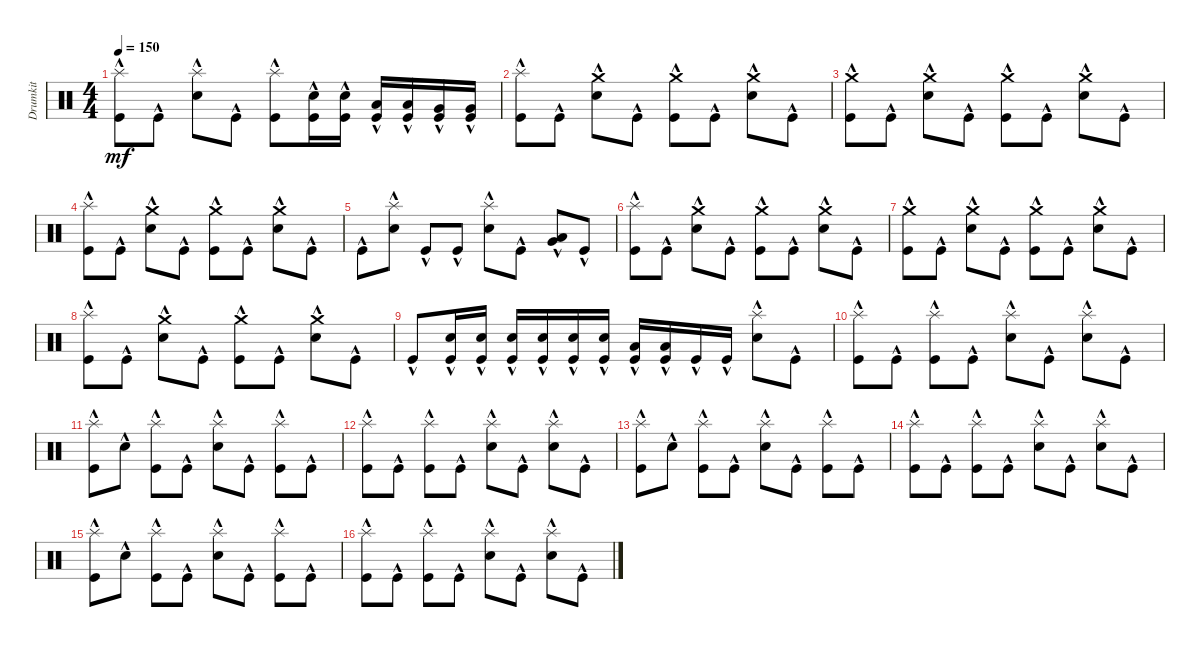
\track ("Drumkit" "Drumkit") {instrument percussion}
\staff {score}
\articulation defaults
\ts (4 4)
\tempo 150
\clef neutral
\ks c
("Kick (hit)"{hac} "Splash (hit)"{hac}).8{dy mf} "Kick (hit)"{hac}.8 ("Snare (hit) 2"{hac} "Splash (hit)"{hac}).8 "Kick (hit)"{hac}.8 ("Kick (hit)"{hac} "Splash (hit)"{hac}).8 ("Snare (hit) 2"{hac} "Kick (hit)"{hac}).16 ("Snare (hit) 2"{hac} "Kick (hit)"{hac}).16 ("Kick (hit)"{hac} "Low Tom (hit)"{hac}).16 ("Kick (hit)"{hac} "Low Tom (hit)"{hac}).16 ("Kick (hit)"{hac} "Very Low Tom (hit)"{hac}).16 ("Kick (hit)"{hac} "Very Low Tom (hit)"{hac}).16 |
("Kick (hit)"{hac} "Splash (hit)"{hac}).8 "Kick (hit)"{hac}.8 ("Snare (hit) 2"{hac} "Crash medium (hit)").8 "Kick (hit)"{hac}.8 ("Kick (hit)"{hac} "Crash medium (hit)").8 "Kick (hit)"{hac}.8 ("Snare (hit) 2"{hac} "Crash medium (hit)").8 "Kick (hit)"{hac}.8 |
("Kick (hit)"{hac} "Crash medium (hit)").8 "Kick (hit)"{hac}.8 ("Snare (hit) 2"{hac} "Crash medium (hit)").8 "Kick (hit)"{hac}.8 ("Kick (hit)"{hac} "Crash medium (hit)").8 "Kick (hit)"{hac}.8 ("Snare (hit) 2"{hac} "Crash medium (hit)").8 "Kick (hit)"{hac}.8 |
("Kick (hit)"{hac} "Splash (hit)"{hac}).8 "Kick (hit)"{hac}.8 ("Snare (hit) 2"{hac} "Crash medium (hit)").8 "Kick (hit)"{hac}.8 ("Kick (hit)"{hac} "Crash medium (hit)").8 "Kick (hit)"{hac}.8 ("Snare (hit) 2"{hac} "Crash medium (hit)").8 "Kick (hit)"{hac}.8 |
"Kick (hit)"{hac}.8 ("Snare (hit) 2"{hac} "Splash (hit)"{hac}).8 "Kick (hit)"{hac}.8 "Kick (hit)"{hac}.8 ("Snare (hit) 2"{hac} "Splash (hit)"{hac}).8 "Kick (hit)"{hac}.8 ("Low Tom (hit)"{hac} "Very Low Tom (hit)"{hac}).8 "Kick (hit)"{hac}.8 |
("Kick (hit)"{hac} "Splash (hit)"{hac}).8 "Kick (hit)"{hac}.8 ("Snare (hit) 2"{hac} "Crash medium (hit)").8 "Kick (hit)"{hac}.8 ("Kick (hit)"{hac} "Crash medium (hit)").8 "Kick (hit)"{hac}.8 ("Snare (hit) 2"{hac} "Crash medium (hit)").8 "Kick (hit)"{hac}.8 |
("Kick (hit)"{hac} "Crash medium (hit)").8 "Kick (hit)"{hac}.8 ("Snare (hit) 2"{hac} "Crash medium (hit)").8 "Kick (hit)"{hac}.8 ("Kick (hit)"{hac} "Crash medium (hit)").8 "Kick (hit)"{hac}.8 ("Snare (hit) 2"{hac} "Crash medium (hit)").8 "Kick (hit)"{hac}.8 |
("Kick (hit)"{hac} "Splash (hit)"{hac}).8 "Kick (hit)"{hac}.8 ("Snare (hit) 2"{hac} "Crash medium (hit)").8 "Kick (hit)"{hac}.8 ("Kick (hit)"{hac} "Crash medium (hit)").8 "Kick (hit)"{hac}.8 ("Snare (hit) 2"{hac} "Crash medium (hit)").8 "Kick (hit)"{hac}.8 |
"Kick (hit)"{hac}.8 ("Snare (hit) 2"{hac} "Kick (hit)").16 ("Snare (hit) 2"{hac} "Kick (hit)").16 ("Snare (hit) 2"{hac} "Kick (hit)").16 ("Snare (hit) 2"{hac} "Kick (hit)").16 ("Snare (hit) 2"{hac} "Kick (hit)").16 ("Snare (hit) 2"{hac} "Kick (hit)").16 ("Low Tom (hit)"{hac} "Kick (hit)").16 ("Low Tom (hit)"{hac} "Kick (hit)").16 "Kick (hit)"{hac}.16 "Kick (hit)"{hac}.16 ("Snare (hit) 2"{hac} "Splash (hit)"{hac}).8 "Kick (hit)"{hac}.8 |
("Kick (hit)"{hac} "Splash (hit)"{hac}).8 "Kick (hit)"{hac}.8 ("Kick (hit)"{hac} "Splash (hit)"{hac}).8 "Kick (hit)"{hac}.8 ("Snare (hit) 2"{hac} "Splash (hit)"{hac}).8 "Kick (hit)"{hac}.8 ("Snare (hit) 2"{hac} "Splash (hit)"{hac}).8 "Kick (hit)"{hac}.8 |
("Kick (hit)"{hac} "Splash (hit)"{hac}).8 "Snare (hit) 2"{hac}.8 ("Kick (hit)"{hac} "Splash (hit)"{hac}).8 "Kick (hit)"{hac}.8 ("Snare (hit) 2"{hac} "Splash (hit)"{hac}).8 "Kick (hit)"{hac}.8 ("Kick (hit)"{hac} "Splash (hit)"{hac}).8 "Kick (hit)"{hac}.8 |
("Kick (hit)"{hac} "Splash (hit)"{hac}).8 "Kick (hit)"{hac}.8 ("Kick (hit)"{hac} "Splash (hit)"{hac}).8 "Kick (hit)"{hac}.8 ("Snare (hit) 2"{hac} "Splash (hit)"{hac}).8 "Kick (hit)"{hac}.8 ("Snare (hit) 2"{hac} "Splash (hit)"{hac}).8 "Kick (hit)"{hac}.8 |
("Kick (hit)"{hac} "Splash (hit)"{hac}).8 "Snare (hit) 2"{hac}.8 ("Kick (hit)"{hac} "Splash (hit)"{hac}).8 "Kick (hit)"{hac}.8 ("Snare (hit) 2"{hac} "Splash (hit)"{hac}).8 "Kick (hit)"{hac}.8 ("Kick (hit)"{hac} "Splash (hit)"{hac}).8 "Kick (hit)"{hac}.8 |
("Kick (hit)"{hac} "Splash (hit)"{hac}).8 "Kick (hit)"{hac}.8 ("Kick (hit)"{hac} "Splash (hit)"{hac}).8 "Kick (hit)"{hac}.8 ("Snare (hit) 2"{hac} "Splash (hit)"{hac}).8 "Kick (hit)"{hac}.8 ("Snare (hit) 2"{hac} "Splash (hit)"{hac}).8 "Kick (hit)"{hac}.8 |
("Kick (hit)"{hac} "Splash (hit)"{hac}).8 "Snare (hit) 2"{hac}.8 ("Kick (hit)"{hac} "Splash (hit)"{hac}).8 "Kick (hit)"{hac}.8 ("Snare (hit) 2"{hac} "Splash (hit)"{hac}).8 "Kick (hit)"{hac}.8 ("Kick (hit)"{hac} "Splash (hit)"{hac}).8 "Kick (hit)"{hac}.8 |
("Kick (hit)"{hac} "Splash (hit)"{hac}).8 "Kick (hit)"{hac}.8 ("Kick (hit)"{hac} "Splash (hit)"{hac}).8 "Kick (hit)"{hac}.8 ("Snare (hit) 2"{hac} "Splash (hit)"{hac}).8 "Kick (hit)"{hac}.8 ("Snare (hit) 2"{hac} "Splash (hit)"{hac}).8 "Kick (hit)"{hac}.8
